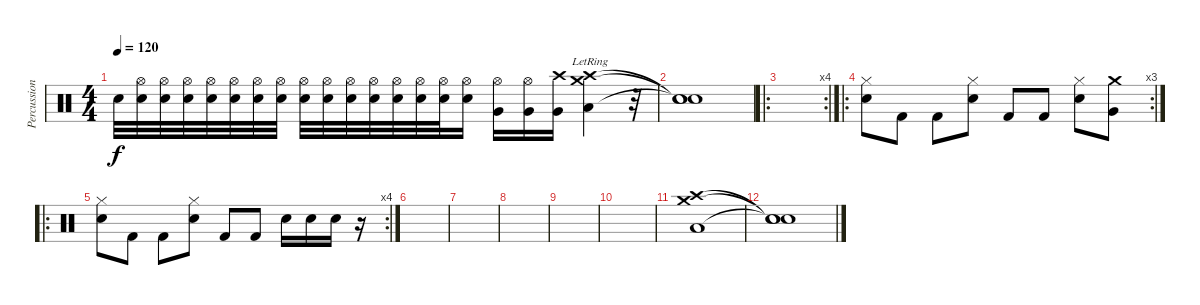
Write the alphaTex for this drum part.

\track ("Percussion" "Percussion") {instrument percussion}
\staff {score}
\articulation defaults
\ts (4 4)
\tempo 120
\clef neutral
\ks c "Snare (hit) 2".32{dy f}
("Snare (hit) 2" "Hi-Hat (open)").32 ("Snare (hit) 2" "Hi-Hat (open)").32 ("Snare (hit) 2" "Hi-Hat (open)").32 ("Snare (hit) 2" "Hi-Hat (open)").32 ("Snare (hit) 2" "Hi-Hat (open)").32 ("Snare (hit) 2" "Hi-Hat (open)").32 ("Snare (hit) 2" "Hi-Hat (open)").32 ("Snare (hit) 2" "Hi-Hat (open)").32 ("Snare (hit) 2" "Hi-Hat (open)").32 ("Snare (hit) 2" "Hi-Hat (open)").32 ("Snare (hit) 2" "Hi-Hat (open)").32 ("Snare (hit) 2" "Hi-Hat (open)").32 ("Snare (hit) 2" "Hi-Hat (open)").32 ("Electric Snare (hit)" "Hi-Hat (open)").32 ("Snare (hit) 2" "Hi-Hat (open)").16 ("Very Low Tom (hit)" "Hi-Hat (open)").16 ("Very Low Tom (hit)" "Hi-Hat (open)").16 ("Very Low Tom (hit)" "Crash high (hit)").16 ("Low Tom (hit)"{lr} "Crash high (hit)" "Crash medium (hit)").4 r.32 |
("Snare (hit)"{t} "Snare (hit)"{t} "Snare (hit)"{t}).1 |
\ro
\rc 4
|
\ro
\rc 3
("Hi-Hat (closed)" "Snare (hit) 2").8 "Kick (hit) 2".8 "Kick (hit) 2".8 ("Hi-Hat (closed)" "Snare (hit) 2").8 "Kick (hit) 2".8 "Kick (hit) 2".8 ("Hi-Hat (closed)" "Snare (hit) 2").8 ("Crash medium (hit)" "Very Low Tom (hit)").8 |
\ro
\rc 4
("Hi-Hat (closed)" "Snare (hit) 2").8 "Kick (hit) 2".8 "Kick (hit) 2".8 ("Hi-Hat (closed)" "Snare (hit) 2").8 "Kick (hit) 2".8 "Kick (hit) 2".8 "Electric Snare (hit)".16 "Electric Snare (hit)".16 "Electric Snare (hit)".16 r.16 |
|
|
|
|
|
("Low Floor Tom (hit)" "Crash high (hit)" "Crash medium (hit)").1 |
("Snare (hit)"{t} "Snare (hit)"{t} "Snare (hit)"{t}).1
